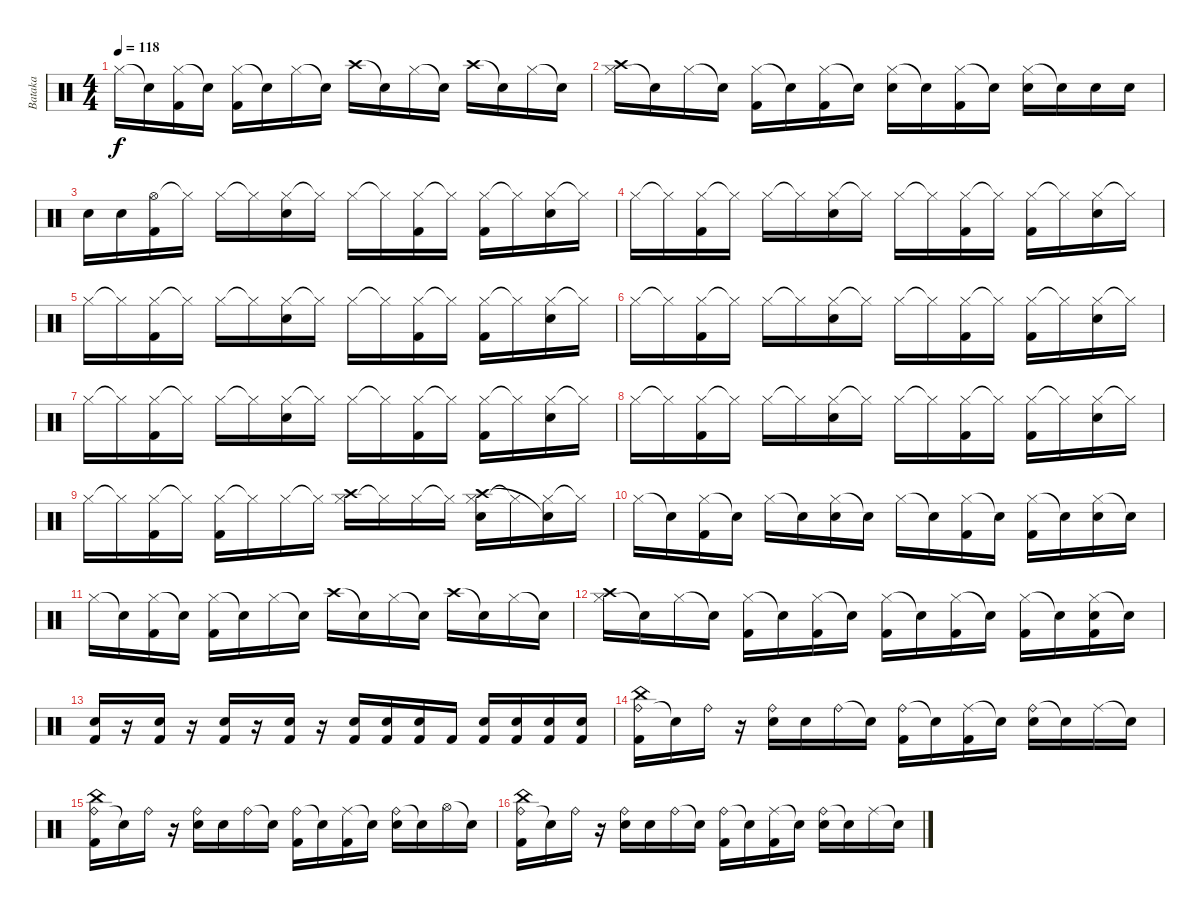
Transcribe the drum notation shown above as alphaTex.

\track ("Bataka" "Bataka") {instrument percussion}
\staff {score}
\articulation defaults
\ts (4 4)
\tempo 118
\clef neutral
\ks c "Hi-Hat (closed)".16{dy f} "Snare (hit)"{t}.16
("Hi-Hat (closed)" "Kick (hit) 2").16 "Snare (hit)"{t}.16 ("Hi-Hat (closed)" "Kick (hit) 2").16 "Snare (hit)"{t}.16 "Hi-Hat (closed)"{x}.16 "Snare (hit)"{t}.16 "Crash high (hit)".16 "Snare (hit)"{t}.16 "Hi-Hat (closed)"{x}.16 "Snare (hit)"{t}.16 "Crash high (hit)".16 "Snare (hit)"{t}.16 "Hi-Hat (closed)"{x}.16 "Snare (hit)"{t}.16 |
("Hi-Hat (closed)" "Crash high (hit)").16 "Snare (hit)"{t}.16 "Hi-Hat (closed)"{x}.16 "Snare (hit)"{t}.16 ("Hi-Hat (closed)"{x} "Kick (hit) 2").16 "Snare (hit)"{t}.16 ("Hi-Hat (closed)"{x} "Kick (hit) 2").16 "Snare (hit)"{t}.16 ("Hi-Hat (closed)"{x} "Snare (hit) 2").16 "Snare (hit)"{t}.16 ("Hi-Hat (closed)"{x} "Kick (hit) 2").16 "Snare (hit)"{t}.16 ("Hi-Hat (closed)"{x} "Snare (hit) 2").16 "Snare (hit)"{t}.16 "Snare (hit) 2".16 "Snare (hit) 2".16 |
"Snare (hit) 2".16 "Snare (hit) 2".16 ("Hi-Hat (open)" "Kick (hit) 2").16 "Hi-Hat (closed)"{t}.16 "Hi-Hat (closed)".16 "Hi-Hat (closed)"{t}.16 ("Hi-Hat (closed)" "Snare (hit) 2").16 "Hi-Hat (closed)"{t}.16 "Hi-Hat (closed)".16 "Hi-Hat (closed)"{t}.16 ("Hi-Hat (closed)" "Kick (hit) 2").16 "Hi-Hat (closed)"{t}.16 ("Hi-Hat (closed)" "Kick (hit) 2").16 "Hi-Hat (closed)"{t}.16 ("Hi-Hat (closed)" "Snare (hit) 2").16 "Hi-Hat (closed)"{t}.16 |
"Hi-Hat (closed)".16 "Hi-Hat (closed)"{t}.16 ("Hi-Hat (closed)" "Kick (hit) 2").16 "Hi-Hat (closed)"{t}.16 "Hi-Hat (closed)".16 "Hi-Hat (closed)"{t}.16 ("Hi-Hat (closed)" "Snare (hit) 2").16 "Hi-Hat (closed)"{t}.16 "Hi-Hat (closed)".16 "Hi-Hat (closed)"{t}.16 ("Hi-Hat (closed)" "Kick (hit) 2").16 "Hi-Hat (closed)"{t}.16 ("Hi-Hat (closed)" "Kick (hit) 2").16 "Hi-Hat (closed)"{t}.16 ("Hi-Hat (closed)" "Snare (hit) 2").16 "Hi-Hat (closed)"{t}.16 |
"Hi-Hat (closed)".16 "Hi-Hat (closed)"{t}.16 ("Hi-Hat (closed)" "Kick (hit) 2").16 "Hi-Hat (closed)"{t}.16 "Hi-Hat (closed)".16 "Hi-Hat (closed)"{t}.16 ("Hi-Hat (closed)" "Snare (hit) 2").16 "Hi-Hat (closed)"{t}.16 "Hi-Hat (closed)".16 "Hi-Hat (closed)"{t}.16 ("Hi-Hat (closed)" "Kick (hit) 2").16 "Hi-Hat (closed)"{t}.16 ("Hi-Hat (closed)" "Kick (hit) 2").16 "Hi-Hat (closed)"{t}.16 ("Hi-Hat (closed)" "Snare (hit) 2").16 "Hi-Hat (closed)"{t}.16 |
"Hi-Hat (closed)".16 "Hi-Hat (closed)"{t}.16 ("Hi-Hat (closed)" "Kick (hit) 2").16 "Hi-Hat (closed)"{t}.16 "Hi-Hat (closed)".16 "Hi-Hat (closed)"{t}.16 ("Hi-Hat (closed)" "Snare (hit) 2").16 "Hi-Hat (closed)"{t}.16 "Hi-Hat (closed)".16 "Hi-Hat (closed)"{t}.16 ("Hi-Hat (closed)" "Kick (hit) 2").16 "Hi-Hat (closed)"{t}.16 ("Hi-Hat (closed)" "Kick (hit) 2").16 "Hi-Hat (closed)"{t}.16 ("Hi-Hat (closed)" "Snare (hit) 2").16 "Hi-Hat (closed)"{t}.16 |
"Hi-Hat (closed)".16 "Hi-Hat (closed)"{t}.16 ("Hi-Hat (closed)" "Kick (hit) 2").16 "Hi-Hat (closed)"{t}.16 "Hi-Hat (closed)".16 "Hi-Hat (closed)"{t}.16 ("Hi-Hat (closed)" "Snare (hit) 2").16 "Hi-Hat (closed)"{t}.16 "Hi-Hat (closed)".16 "Hi-Hat (closed)"{t}.16 ("Hi-Hat (closed)" "Kick (hit) 2").16 "Hi-Hat (closed)"{t}.16 ("Hi-Hat (closed)" "Kick (hit) 2").16 "Hi-Hat (closed)"{t}.16 ("Hi-Hat (closed)" "Snare (hit) 2").16 "Hi-Hat (closed)"{t}.16 |
"Hi-Hat (closed)".16 "Hi-Hat (closed)"{t}.16 ("Hi-Hat (closed)" "Kick (hit) 2").16 "Hi-Hat (closed)"{t}.16 "Hi-Hat (closed)".16 "Hi-Hat (closed)"{t}.16 ("Hi-Hat (closed)" "Snare (hit) 2").16 "Hi-Hat (closed)"{t}.16 "Hi-Hat (closed)".16 "Hi-Hat (closed)"{t}.16 ("Hi-Hat (closed)" "Kick (hit) 2").16 "Hi-Hat (closed)"{t}.16 ("Hi-Hat (closed)" "Kick (hit) 2").16 "Hi-Hat (closed)"{t}.16 ("Hi-Hat (closed)" "Snare (hit) 2").16 "Hi-Hat (closed)"{t}.16 |
"Hi-Hat (closed)".16 "Hi-Hat (closed)"{t}.16 ("Hi-Hat (closed)" "Kick (hit) 2").16 "Hi-Hat (closed)"{t}.16 ("Hi-Hat (closed)" "Kick (hit) 2").16 "Hi-Hat (closed)"{t}.16 "Hi-Hat (closed)".16 "Hi-Hat (closed)"{t}.16 ("Hi-Hat (closed)" "Crash high (hit)").16 "Hi-Hat (closed)"{t}.16 "Hi-Hat (closed)".16 "Hi-Hat (closed)"{t}.16 ("Hi-Hat (closed)" "Crash high (hit)" "Snare (hit) 2").16 "Hi-Hat (closed)"{t}.16 ("Hi-Hat (closed)" "Snare (hit)"{t}).16 "Hi-Hat (closed)"{t}.16 |
"Hi-Hat (closed)".16 "Snare (hit)"{t}.16 ("Hi-Hat (closed)" "Kick (hit) 2").16 "Snare (hit)"{t}.16 "Hi-Hat (closed)".16 "Snare (hit)"{t}.16 ("Hi-Hat (closed)" "Snare (hit) 2").16 "Snare (hit)"{t}.16 "Hi-Hat (closed)".16 "Snare (hit)"{t}.16 ("Hi-Hat (closed)" "Kick (hit) 2").16 "Snare (hit)"{t}.16 ("Hi-Hat (closed)" "Kick (hit) 2").16 "Snare (hit)"{t}.16 ("Hi-Hat (closed)" "Snare (hit) 2").16 "Snare (hit)"{t}.16 |
"Hi-Hat (closed)".16 "Snare (hit)"{t}.16 ("Hi-Hat (closed)" "Kick (hit) 2").16 "Snare (hit)"{t}.16 ("Hi-Hat (closed)" "Kick (hit) 2").16 "Snare (hit)"{t}.16 "Hi-Hat (closed)"{x}.16 "Snare (hit)"{t}.16 "Crash high (hit)".16 "Snare (hit)"{t}.16 "Hi-Hat (closed)"{x}.16 "Snare (hit)"{t}.16 "Crash high (hit)".16 "Snare (hit)"{t}.16 "Hi-Hat (closed)"{x}.16 "Snare (hit)"{t}.16 |
("Hi-Hat (closed)" "Crash high (hit)").16 "Snare (hit)"{t}.16 "Hi-Hat (closed)"{x}.16 "Snare (hit)"{t}.16 ("Hi-Hat (closed)"{x} "Kick (hit) 2").16 "Snare (hit)"{t}.16 ("Hi-Hat (closed)"{x} "Kick (hit) 2").16 "Snare (hit)"{t}.16 ("Hi-Hat (closed)"{x} "Kick (hit) 2").16 "Snare (hit)"{t}.16 ("Hi-Hat (closed)"{x} "Kick (hit) 2").16 "Snare (hit)"{t}.16 ("Hi-Hat (closed)"{x} "Kick (hit) 2").16 "Snare (hit)"{t}.16 ("Hi-Hat (closed)"{x} "Kick (hit) 2" "Snare (hit) 2").16 "Snare (hit)"{t}.16 |
("Kick (hit) 2" "Snare (hit) 2").16 r.16 ("Kick (hit) 2" "Snare (hit) 2").16 r.16 ("Kick (hit) 2" "Snare (hit) 2").16 r.16 ("Kick (hit) 2" "Snare (hit) 2").16 r.16 ("Kick (hit) 2" "Snare (hit) 2").16 ("Kick (hit) 2" "Snare (hit) 2").16 ("Kick (hit) 2" "Snare (hit) 2").16 "Kick (hit) 2".16 ("Kick (hit) 2" "Snare (hit) 2").16 ("Kick (hit) 2" "Snare (hit) 2").16 ("Kick (hit) 2" "Snare (hit) 2").16 ("Kick (hit) 2" "Snare (hit) 2").16 |
("Ride (bell)" "China (hit)" "Kick (hit) 2").16 "Snare (hit)"{t}.16 "Ride (bell)"{x}.16 r.16 ("Ride (bell)" "Snare (hit) 2").16 "Snare (hit)"{x}.16 "Ride (bell)"{x}.16 "Snare (hit)"{t}.16 ("Ride (bell)" "Kick (hit) 2").16 "Snare (hit)"{t}.16 ("Ride (middle)"{x} "Kick (hit) 2").16 "Snare (hit)"{t}.16 ("Ride (bell)" "Snare (hit) 2").16 "Snare (hit)"{t}.16 "Ride (middle)"{x}.16 "Snare (hit)"{t}.16 |
("Ride (bell)" "China (hit)"{x} "Kick (hit) 2").16 "Snare (hit)"{t}.16 "Ride (bell)"{x}.16 r.16 ("Ride (bell)" "Snare (hit) 2").16 "Snare (hit)"{x}.16 "Ride (bell)"{x}.16 "Snare (hit)"{t}.16 ("Ride (bell)" "Kick (hit) 2").16 "Snare (hit)"{t}.16 ("Ride (middle)"{x} "Kick (hit) 2").16 "Snare (hit)"{t}.16 ("Ride (bell)" "Snare (hit) 2").16 "Snare (hit)"{t}.16 "Hi-Hat (open)".16 "Snare (hit)"{t}.16 |
("Ride (bell)" "China (hit)"{x} "Kick (hit) 2").16 "Snare (hit)"{t}.16 "Ride (bell)"{x}.16 r.16 ("Ride (bell)" "Snare (hit) 2").16 "Snare (hit)"{x}.16 "Ride (bell)"{x}.16 "Snare (hit)"{t}.16 ("Ride (bell)" "Kick (hit) 2").16 "Snare (hit)"{t}.16 ("Ride (middle)"{x} "Kick (hit) 2").16 "Snare (hit)"{t}.16 ("Ride (bell)" "Snare (hit) 2").16 "Snare (hit)"{t}.16 "Ride (middle)"{x}.16 "Snare (hit)"{t}.16
